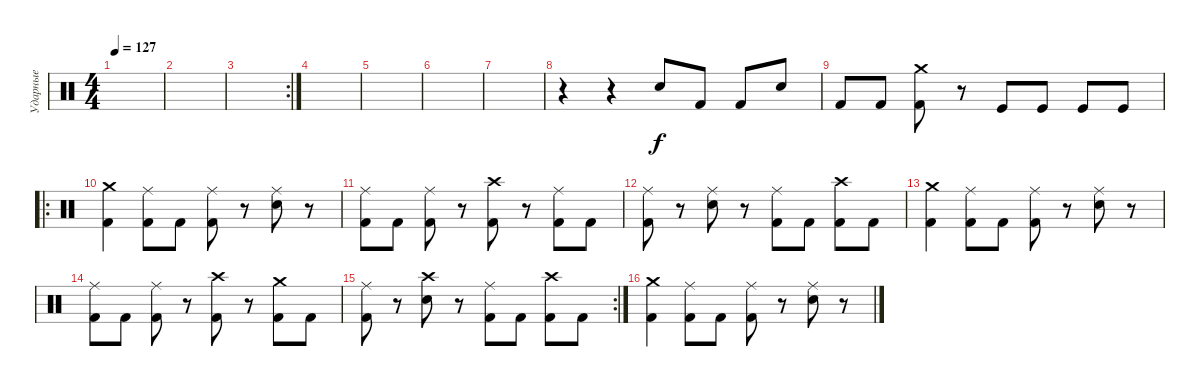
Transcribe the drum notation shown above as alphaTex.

\track ("Ударные" "Ударные") {instrument percussion}
\staff {score}
\articulation defaults
\ts (4 4)
\tempo 127
\clef neutral
\ks c
|
|
\rc 2
|
|
|
|
|
r.4 r.4 "Electric Snare (hit)".8 "Kick (hit) 2".8 "Kick (hit) 2".8 "Electric Snare (hit)".8 |
"Kick (hit) 2".8 "Kick (hit) 2".8 ("Crash medium (hit)" "Kick (hit) 2").8 r.8 "Kick (hit)".8 "Kick (hit)".8 "Kick (hit)".8 "Kick (hit)".8 |
\ro
("Crash medium (hit)" "Kick (hit) 2").4 ("Ride (middle)" "Kick (hit) 2").8 "Kick (hit) 2".8 ("Ride (middle)" "Kick (hit) 2").8 r.8 ("Ride (middle)" "Electric Snare (hit)").8 r.8 |
("Ride (middle)" "Kick (hit) 2").8 "Kick (hit) 2".8 ("Ride (middle)" "Kick (hit) 2").8 r.8 ("Crash high (hit)" "Kick (hit) 2").8 r.8 ("Ride (middle)" "Kick (hit) 2").8 "Kick (hit) 2".8 |
("Ride (middle)" "Kick (hit) 2").8 r.8 ("Ride (middle)" "Electric Snare (hit)").8 r.8 ("Ride (middle)" "Kick (hit) 2").8 "Kick (hit) 2".8 ("Kick (hit) 2" "Crash high (hit)").8 "Kick (hit) 2".8 |
("Crash medium (hit)" "Kick (hit) 2").4 ("Ride (middle)" "Kick (hit) 2").8 "Kick (hit) 2".8 ("Ride (middle)" "Kick (hit) 2").8 r.8 ("Ride (middle)" "Electric Snare (hit)").8 r.8 |
("Ride (middle)" "Kick (hit) 2").8 "Kick (hit) 2".8 ("Ride (middle)" "Kick (hit) 2").8 r.8 ("Crash high (hit)" "Kick (hit) 2").8 r.8 ("Crash medium (hit)" "Kick (hit) 2").8 "Kick (hit) 2".8 |
\rc 2
("Ride (middle)" "Kick (hit) 2").8 r.8 ("Crash high (hit)" "Electric Snare (hit)").8 r.8 ("Ride (middle)" "Kick (hit) 2").8 "Kick (hit) 2".8 ("Kick (hit) 2" "Crash high (hit)").8 "Kick (hit) 2".8 |
("Crash medium (hit)" "Kick (hit) 2").4 ("Ride (middle)" "Kick (hit) 2").8 "Kick (hit) 2".8 ("Ride (middle)" "Kick (hit) 2").8 r.8 ("Ride (middle)" "Electric Snare (hit)").8 r.8
